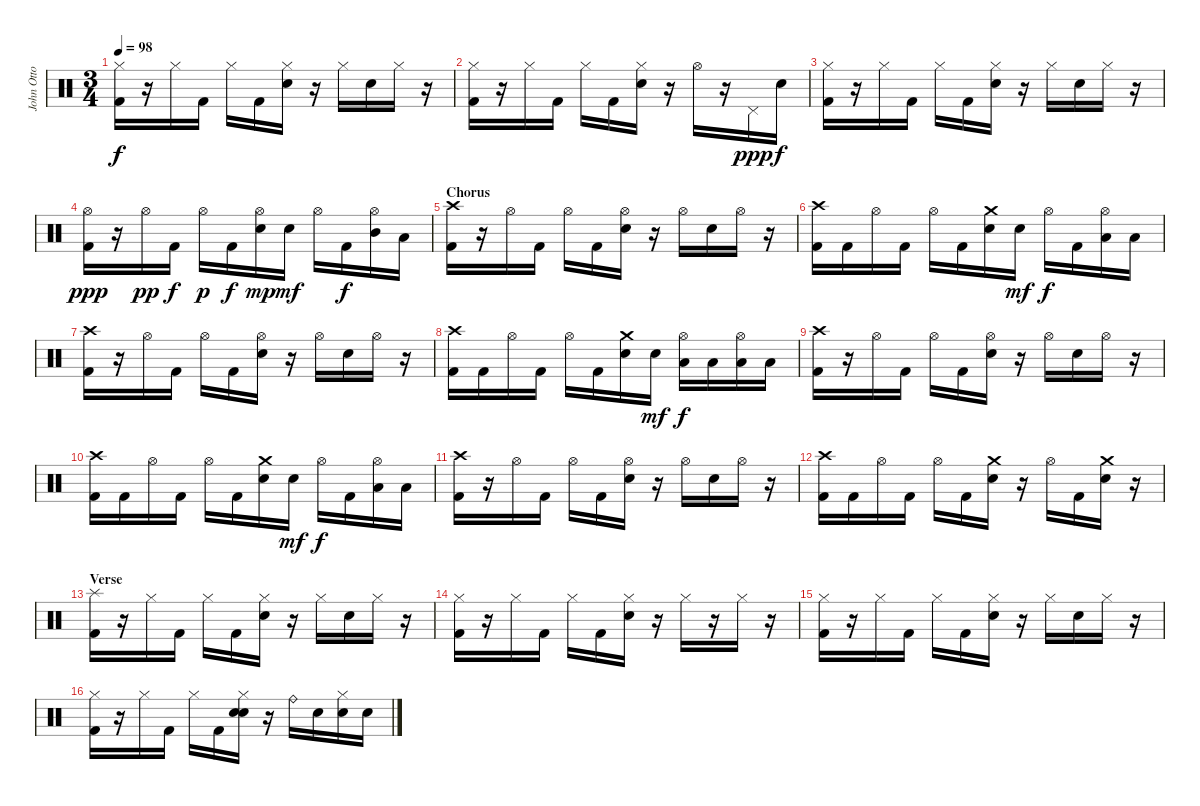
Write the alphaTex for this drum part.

\track ("John Otto - Drums" "John Otto ") {instrument percussion}
\staff {score}
\articulation defaults
\ts (3 4)
\tempo 98
\clef neutral
\ks c
("Hi-Hat (closed)" "Kick (hit) 2").16{dy f} r.16 "Hi-Hat (closed)".16 "Kick (hit) 2".16 "Hi-Hat (closed)".16 "Kick (hit) 2".16 ("Hi-Hat (closed)" "Electric Snare (hit)").16 r.16 "Hi-Hat (closed)".16 "Electric Snare (hit)".16 "Hi-Hat (closed)".16 r.16 |
("Hi-Hat (closed)" "Kick (hit) 2").16 r.16 "Hi-Hat (closed)".16 "Kick (hit) 2".16 "Hi-Hat (closed)".16 "Kick (hit) 2".16 ("Hi-Hat (closed)" "Electric Snare (hit)").16 r.16 "Hi-Hat (open)".16 r.16 "Pedal Hi-Hat (hit)".16{dy ppp} "Electric Snare (hit)".16{dy f} |
("Hi-Hat (closed)" "Kick (hit) 2").16 r.16 "Hi-Hat (closed)".16 "Kick (hit) 2".16 "Hi-Hat (closed)".16 "Kick (hit) 2".16 ("Hi-Hat (closed)" "Electric Snare (hit)").16 r.16 "Hi-Hat (closed)".16 "Electric Snare (hit)".16 "Hi-Hat (closed)".16 r.16 |
("Hi-Hat (open)" "Kick (hit) 2").16{dy ppp} r.16 "Hi-Hat (open)".16{dy pp} "Kick (hit) 2".16{dy f} "Hi-Hat (open)".16{dy p} "Kick (hit) 2".16{dy f} ("Hi-Hat (open)" "Electric Snare (hit)").16{dy mp} "Electric Snare (hit)".16{dy mf} "Hi-Hat (open)".16 "Kick (hit) 2".16{dy f} ("Hi-Hat (open)" "Mid Tom (hit)").16 "Low Tom (hit)".16 |
\section ("" "Chorus")
("Crash high (hit)" "Kick (hit) 2").16 r.16 "Hi-Hat (open)".16 "Kick (hit) 2".16 "Hi-Hat (open)".16 "Kick (hit) 2".16 ("Hi-Hat (open)" "Electric Snare (hit)").16 r.16 "Hi-Hat (open)".16 "Electric Snare (hit)".16 "Hi-Hat (open)".16 r.16 |
("Crash high (hit)" "Kick (hit) 2").16 "Kick (hit) 2".16 "Hi-Hat (open)".16 "Kick (hit) 2".16 "Hi-Hat (open)".16 "Kick (hit) 2".16 ("Crash medium (hit)" "Electric Snare (hit)").16 "Electric Snare (hit)".16{dy mf} "Hi-Hat (open)".16{dy f} "Kick (hit) 2".16 ("Hi-Hat (open)" "Low Tom (hit)").16 "Low Tom (hit)".16 |
("Crash high (hit)" "Kick (hit) 2").16 r.16 "Hi-Hat (open)".16 "Kick (hit) 2".16 "Hi-Hat (open)".16 "Kick (hit) 2".16 ("Hi-Hat (open)" "Electric Snare (hit)").16 r.16 "Hi-Hat (open)".16 "Electric Snare (hit)".16 "Hi-Hat (open)".16 r.16 |
("Crash high (hit)" "Kick (hit) 2").16 "Kick (hit) 2".16 "Hi-Hat (open)".16 "Kick (hit) 2".16 "Hi-Hat (open)".16 "Kick (hit) 2".16 ("Crash medium (hit)" "Electric Snare (hit)").16 "Electric Snare (hit)".16{dy mf} ("Hi-Hat (open)" "Low Tom (hit)").16{dy f} "Low Tom (hit)".16 ("Hi-Hat (open)" "Low Tom (hit)").16 "Low Tom (hit)".16 |
("Crash high (hit)" "Kick (hit) 2").16 r.16 "Hi-Hat (open)".16 "Kick (hit) 2".16 "Hi-Hat (open)".16 "Kick (hit) 2".16 ("Hi-Hat (open)" "Electric Snare (hit)").16 r.16 "Hi-Hat (open)".16 "Electric Snare (hit)".16 "Hi-Hat (open)".16 r.16 |
("Crash high (hit)" "Kick (hit) 2").16 "Kick (hit) 2".16 "Hi-Hat (open)".16 "Kick (hit) 2".16 "Hi-Hat (open)".16 "Kick (hit) 2".16 ("Crash medium (hit)" "Electric Snare (hit)").16 "Electric Snare (hit)".16{dy mf} "Hi-Hat (open)".16{dy f} "Kick (hit) 2".16 ("Hi-Hat (open)" "Low Tom (hit)").16 "Low Tom (hit)".16 |
("Crash high (hit)" "Kick (hit) 2").16 r.16 "Hi-Hat (open)".16 "Kick (hit) 2".16 "Hi-Hat (open)".16 "Kick (hit) 2".16 ("Hi-Hat (open)" "Electric Snare (hit)").16 r.16 "Hi-Hat (open)".16 "Electric Snare (hit)".16 "Hi-Hat (open)".16 r.16 |
("Crash high (hit)" "Kick (hit) 2").16 "Kick (hit) 2".16 "Hi-Hat (open)".16 "Kick (hit) 2".16 "Hi-Hat (open)".16 "Kick (hit) 2".16 ("Crash medium (hit)" "Electric Snare (hit)").16 r.16 "Hi-Hat (open)".16 "Kick (hit) 2".16 ("Crash medium (hit)" "Electric Snare (hit)").16 r.16 |
\section ("" "Verse")
("Splash (hit)" "Kick (hit) 2").16 r.16 "Hi-Hat (closed)".16 "Kick (hit) 2".16 "Hi-Hat (closed)".16 "Kick (hit) 2".16 ("Hi-Hat (closed)" "Electric Snare (hit)").16 r.16 "Hi-Hat (closed)".16 "Electric Snare (hit)".16 "Hi-Hat (closed)".16 r.16 |
("Hi-Hat (closed)" "Kick (hit) 2").16 r.16 "Hi-Hat (closed)".16 "Kick (hit) 2".16 "Hi-Hat (closed)".16 "Kick (hit) 2".16 ("Hi-Hat (closed)" "Electric Snare (hit)").16 r.16 "Hi-Hat (closed)".16 r.16 "Hi-Hat (closed)".16 r.16 |
("Hi-Hat (closed)" "Kick (hit) 2").16 r.16 "Hi-Hat (closed)".16 "Kick (hit) 2".16 "Hi-Hat (closed)".16 "Kick (hit) 2".16 ("Hi-Hat (closed)" "Electric Snare (hit)").16 r.16 "Hi-Hat (closed)".16 "Electric Snare (hit)".16 "Hi-Hat (closed)".16 r.16 |
("Hi-Hat (closed)" "Kick (hit) 2").16 r.16 "Hi-Hat (closed)".16 "Kick (hit) 2".16 "Hi-Hat (closed)".16 "Kick (hit) 2".16 ("Hi-Hat (closed)" "Electric Snare (hit)" "Electric Snare (hit)").16{bd 60} r.16 "Ride (bell)".16 "Electric Snare (hit)".16 ("Hi-Hat (closed)" "Electric Snare (hit)").16 "Electric Snare (hit)".16
